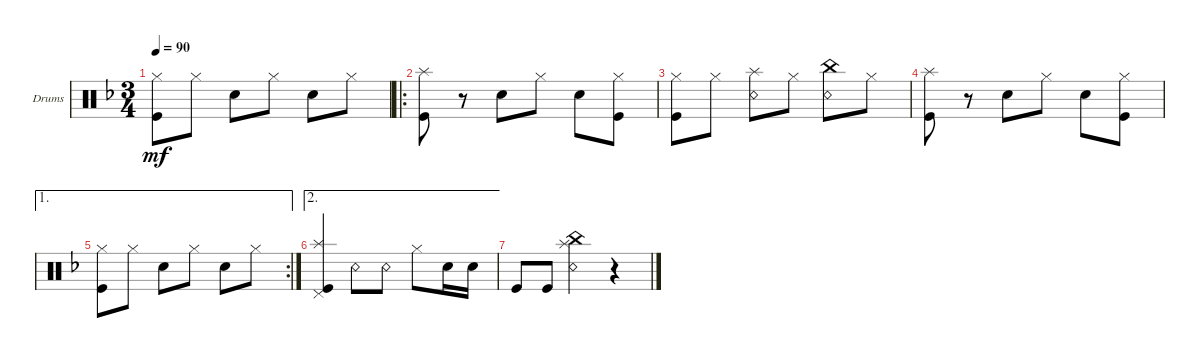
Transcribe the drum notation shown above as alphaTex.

\defaultSystemsLayout 4
\bracketExtendMode groupsimilarinstruments
\firstSystemTrackNameOrientation horizontal
\otherSystemsTrackNameOrientation horizontal
\track ("Drumkit" "Drums") {instrument percussion}
\staff {score}
\articulation defaults
\ts (3 4)
\tempo 90
\clef neutral
\ks dminor
("Kick (hit)" "Hi-Hat (closed)").8{dy mf} "Hi-Hat (closed)".8 "Snare (hit) 2".8 "Hi-Hat (closed)".8 "Snare (hit) 2".8 "Hi-Hat (closed)".8 |
\ro
("Kick (hit)" "Splash (hit)").8 r.8 "Snare (hit) 2".8 "Hi-Hat (closed)".8 "Snare (hit) 2".8 ("Hi-Hat (closed)" "Kick (hit)").8 |
("Kick (hit)" "Hi-Hat (closed)").8 "Hi-Hat (closed)".8 ("Snare (rim shot)" "Splash (hit)").8 "Hi-Hat (closed)".8 ("Snare (rim shot)" "China (hit)").8 "Hi-Hat (closed)".8 |
("Kick (hit)" "Splash (hit)").8 r.8 "Snare (hit) 2".8 "Hi-Hat (closed)".8 "Snare (hit) 2".8 ("Hi-Hat (closed)" "Kick (hit)").8 |
\ae 1
\rc 2
("Kick (hit)" "Hi-Hat (closed)").8 "Hi-Hat (closed)".8 "Snare (hit) 2".8 "Hi-Hat (closed)".8 "Snare (hit) 2".8 "Hi-Hat (closed)".8 |
\ae 2
("Kick (hit)" "Splash (hit)" "Pedal Hi-Hat (hit)").4 "Snare (rim shot)".8 "Snare (rim shot)".8 "Hi-Hat (closed)".8 "Snare (hit) 2".16 "Snare (hit) 2".16 |
"Kick (hit)".8 "Kick (hit)".8 ("Snare (rim shot)" "Splash (hit)" "China (hit)").4 r.4
